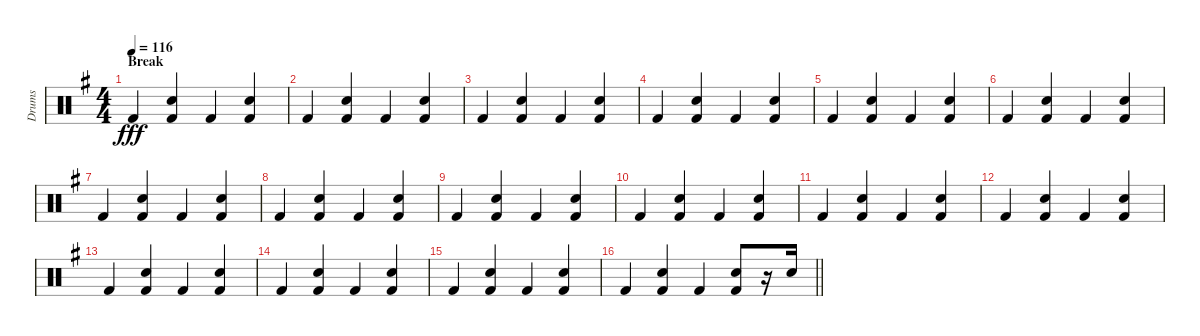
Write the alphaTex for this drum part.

\track ("Drums" "Drums") {instrument percussion}
\staff {score}
\articulation defaults
\ts (4 4)
\section ("" "Break")
\tempo 116
\clef neutral
\ks g "Kick (hit) 2".4{dy fff}
("Electric Snare (hit)" "Kick (hit) 2").4 "Kick (hit) 2".4 ("Electric Snare (hit)" "Kick (hit) 2").4 |
"Kick (hit) 2".4 ("Electric Snare (hit)" "Kick (hit) 2").4 "Kick (hit) 2".4 ("Electric Snare (hit)" "Kick (hit) 2").4 |
"Kick (hit) 2".4 ("Electric Snare (hit)" "Kick (hit) 2").4 "Kick (hit) 2".4 ("Electric Snare (hit)" "Kick (hit) 2").4 |
"Kick (hit) 2".4 ("Electric Snare (hit)" "Kick (hit) 2").4 "Kick (hit) 2".4 ("Electric Snare (hit)" "Kick (hit) 2").4 |
"Kick (hit) 2".4 ("Electric Snare (hit)" "Kick (hit) 2").4 "Kick (hit) 2".4 ("Electric Snare (hit)" "Kick (hit) 2").4 |
"Kick (hit) 2".4 ("Electric Snare (hit)" "Kick (hit) 2").4 "Kick (hit) 2".4 ("Electric Snare (hit)" "Kick (hit) 2").4 |
"Kick (hit) 2".4 ("Electric Snare (hit)" "Kick (hit) 2").4 "Kick (hit) 2".4 ("Electric Snare (hit)" "Kick (hit) 2").4 |
"Kick (hit) 2".4 ("Electric Snare (hit)" "Kick (hit) 2").4 "Kick (hit) 2".4 ("Electric Snare (hit)" "Kick (hit) 2").4 |
"Kick (hit) 2".4 ("Electric Snare (hit)" "Kick (hit) 2").4 "Kick (hit) 2".4 ("Electric Snare (hit)" "Kick (hit) 2").4 |
"Kick (hit) 2".4 ("Electric Snare (hit)" "Kick (hit) 2").4 "Kick (hit) 2".4 ("Electric Snare (hit)" "Kick (hit) 2").4 |
"Kick (hit) 2".4 ("Electric Snare (hit)" "Kick (hit) 2").4 "Kick (hit) 2".4 ("Electric Snare (hit)" "Kick (hit) 2").4 |
"Kick (hit) 2".4 ("Electric Snare (hit)" "Kick (hit) 2").4 "Kick (hit) 2".4 ("Electric Snare (hit)" "Kick (hit) 2").4 |
"Kick (hit) 2".4 ("Electric Snare (hit)" "Kick (hit) 2").4 "Kick (hit) 2".4 ("Electric Snare (hit)" "Kick (hit) 2").4 |
"Kick (hit) 2".4 ("Electric Snare (hit)" "Kick (hit) 2").4 "Kick (hit) 2".4 ("Electric Snare (hit)" "Kick (hit) 2").4 |
"Kick (hit) 2".4 ("Electric Snare (hit)" "Kick (hit) 2").4 "Kick (hit) 2".4 ("Electric Snare (hit)" "Kick (hit) 2").4 |
\barLineRight lightlight "Kick (hit) 2".4
("Electric Snare (hit)" "Kick (hit) 2").4 "Kick (hit) 2".4 ("Electric Snare (hit)" "Kick (hit) 2").8 r.16 "Electric Snare (hit)".16
